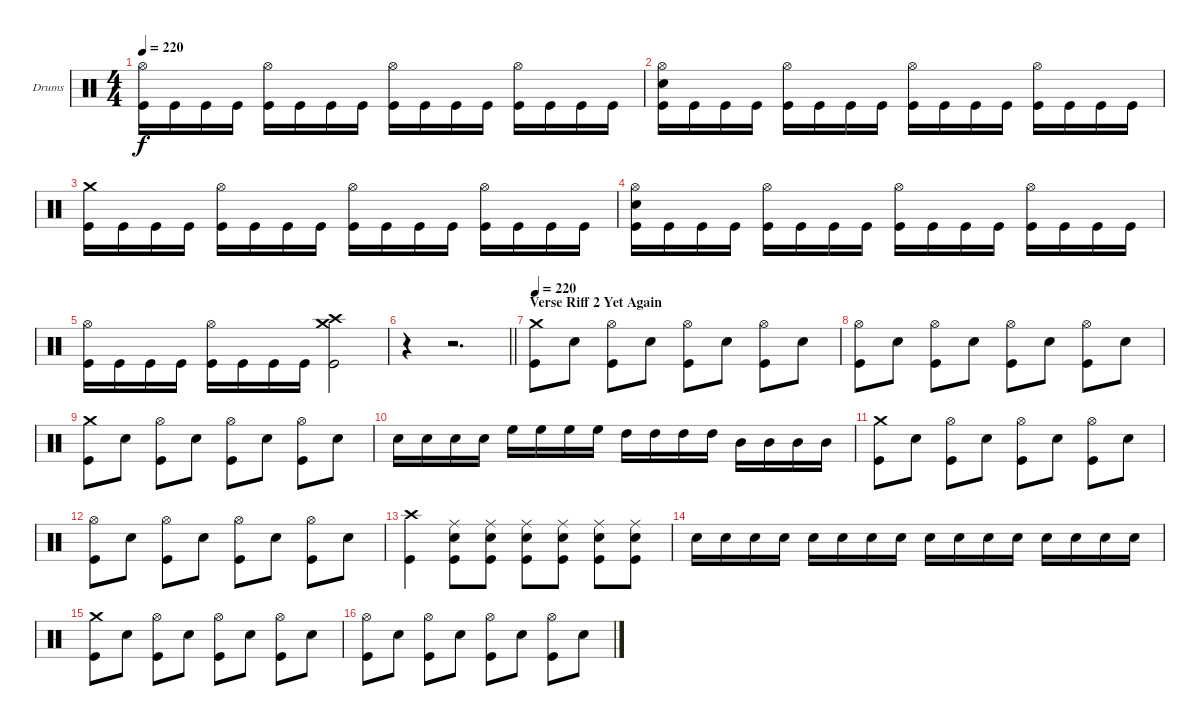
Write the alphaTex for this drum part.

\bracketExtendMode groupsimilarinstruments
\firstSystemTrackNameOrientation horizontal
\otherSystemsTrackNameOrientation horizontal
\track ("Drumkit" "Drums") {instrument percussion}
\staff {score}
\articulation defaults
\ts (4 4)
\tempo 220
\clef neutral
\ks c
("Hi-Hat (open)" "Kick (hit)").16{dy f} "Kick (hit)".16 "Kick (hit)".16 "Kick (hit)".16 ("Hi-Hat (open)" "Kick (hit)").16 "Kick (hit)".16 "Kick (hit)".16 "Kick (hit)".16 ("Hi-Hat (open)" "Kick (hit)").16 "Kick (hit)".16 "Kick (hit)".16 "Kick (hit)".16 ("Hi-Hat (open)" "Kick (hit)").16 "Kick (hit)".16 "Kick (hit)".16 "Kick (hit)".16 |
("Hi-Hat (open)" "Snare (hit) 2" "Kick (hit)").16 "Kick (hit)".16 "Kick (hit)".16 "Kick (hit)".16 ("Hi-Hat (open)" "Kick (hit)").16 "Kick (hit)".16 "Kick (hit)".16 "Kick (hit)".16 ("Hi-Hat (open)" "Kick (hit)").16 "Kick (hit)".16 "Kick (hit)".16 "Kick (hit)".16 ("Hi-Hat (open)" "Kick (hit)").16 "Kick (hit)".16 "Kick (hit)".16 "Kick (hit)".16 |
("Crash medium (hit)" "Kick (hit)").16 "Kick (hit)".16 "Kick (hit)".16 "Kick (hit)".16 ("Hi-Hat (open)" "Kick (hit)").16 "Kick (hit)".16 "Kick (hit)".16 "Kick (hit)".16 ("Hi-Hat (open)" "Kick (hit)").16 "Kick (hit)".16 "Kick (hit)".16 "Kick (hit)".16 ("Hi-Hat (open)" "Kick (hit)").16 "Kick (hit)".16 "Kick (hit)".16 "Kick (hit)".16 |
("Hi-Hat (open)" "Snare (hit) 2" "Kick (hit)").16 "Kick (hit)".16 "Kick (hit)".16 "Kick (hit)".16 ("Hi-Hat (open)" "Kick (hit)").16 "Kick (hit)".16 "Kick (hit)".16 "Kick (hit)".16 ("Hi-Hat (open)" "Kick (hit)").16 "Kick (hit)".16 "Kick (hit)".16 "Kick (hit)".16 ("Hi-Hat (open)" "Kick (hit)").16 "Kick (hit)".16 "Kick (hit)".16 "Kick (hit)".16 |
("Hi-Hat (open)" "Kick (hit)").16 "Kick (hit)".16 "Kick (hit)".16 "Kick (hit)".16 ("Hi-Hat (open)" "Kick (hit)").16 "Kick (hit)".16 "Kick (hit)".16 "Kick (hit)".16 ("Crash medium (hit)" "Crash high (hit)" "Kick (hit)").2 |
\barLineRight lightlight
r.4 r.2{d} |
\section ("" "Verse Riff 2 Yet Again")
\tempo 220
("Crash medium (hit)" "Kick (hit)").8 "Snare (hit) 2".8 ("Hi-Hat (open)" "Kick (hit)").8 "Snare (hit) 2".8 ("Hi-Hat (open)" "Kick (hit)").8 "Snare (hit) 2".8 ("Hi-Hat (open)" "Kick (hit)").8 "Snare (hit) 2".8 |
("Hi-Hat (open)" "Kick (hit)").8 "Snare (hit) 2".8 ("Hi-Hat (open)" "Kick (hit)").8 "Snare (hit) 2".8 ("Hi-Hat (open)" "Kick (hit)").8 "Snare (hit) 2".8 ("Hi-Hat (open)" "Kick (hit)").8 "Snare (hit) 2".8 |
("Crash medium (hit)" "Kick (hit)").8 "Snare (hit) 2".8 ("Hi-Hat (open)" "Kick (hit)").8 "Snare (hit) 2".8 ("Hi-Hat (open)" "Kick (hit)").8 "Snare (hit) 2".8 ("Hi-Hat (open)" "Kick (hit)").8 "Snare (hit) 2".8 |
"Snare (hit) 2".16 "Snare (hit) 2".16 "Snare (hit) 2".16 "Snare (hit) 2".16 "High Floor Tom (hit)".16 "High Floor Tom (hit)".16 "High Floor Tom (hit)".16 "High Floor Tom (hit)".16 "High Tom (hit)".16 "High Tom (hit)".16 "High Tom (hit)".16 "High Tom (hit)".16 "Mid Tom (hit)".16 "Mid Tom (hit)".16 "Mid Tom (hit)".16 "Mid Tom (hit)".16 |
("Crash medium (hit)" "Kick (hit)").8 "Snare (hit) 2".8 ("Hi-Hat (open)" "Kick (hit)").8 "Snare (hit) 2".8 ("Hi-Hat (open)" "Kick (hit)").8 "Snare (hit) 2".8 ("Hi-Hat (open)" "Kick (hit)").8 "Snare (hit) 2".8 |
("Hi-Hat (open)" "Kick (hit)").8 "Snare (hit) 2".8 ("Hi-Hat (open)" "Kick (hit)").8 "Snare (hit) 2".8 ("Hi-Hat (open)" "Kick (hit)").8 "Snare (hit) 2".8 ("Hi-Hat (open)" "Kick (hit)").8 "Snare (hit) 2".8 |
("Crash high (hit)" "Kick (hit)").4 ("Ride (middle)" "Snare (hit) 2" "Kick (hit)").8 ("Ride (middle)" "Snare (hit) 2" "Kick (hit)").8 ("Ride (middle)" "Snare (hit) 2" "Kick (hit)").8 ("Ride (middle)" "Snare (hit) 2" "Kick (hit)").8 ("Ride (middle)" "Snare (hit) 2" "Kick (hit)").8 ("Ride (middle)" "Snare (hit) 2" "Kick (hit)").8 |
"Snare (hit) 2".16 "Snare (hit) 2".16 "Snare (hit) 2".16 "Snare (hit) 2".16 "Snare (hit) 2".16 "Snare (hit) 2".16 "Snare (hit) 2".16 "Snare (hit) 2".16 "Snare (hit) 2".16 "Snare (hit) 2".16 "Snare (hit) 2".16 "Snare (hit) 2".16 "Snare (hit) 2".16 "Snare (hit) 2".16 "Snare (hit) 2".16 "Snare (hit) 2".16 |
("Crash medium (hit)" "Kick (hit)").8 "Snare (hit) 2".8 ("Hi-Hat (open)" "Kick (hit)").8 "Snare (hit) 2".8 ("Hi-Hat (open)" "Kick (hit)").8 "Snare (hit) 2".8 ("Hi-Hat (open)" "Kick (hit)").8 "Snare (hit) 2".8 |
("Hi-Hat (open)" "Kick (hit)").8 "Snare (hit) 2".8 ("Hi-Hat (open)" "Kick (hit)").8 "Snare (hit) 2".8 ("Hi-Hat (open)" "Kick (hit)").8 "Snare (hit) 2".8 ("Hi-Hat (open)" "Kick (hit)").8 "Snare (hit) 2".8
